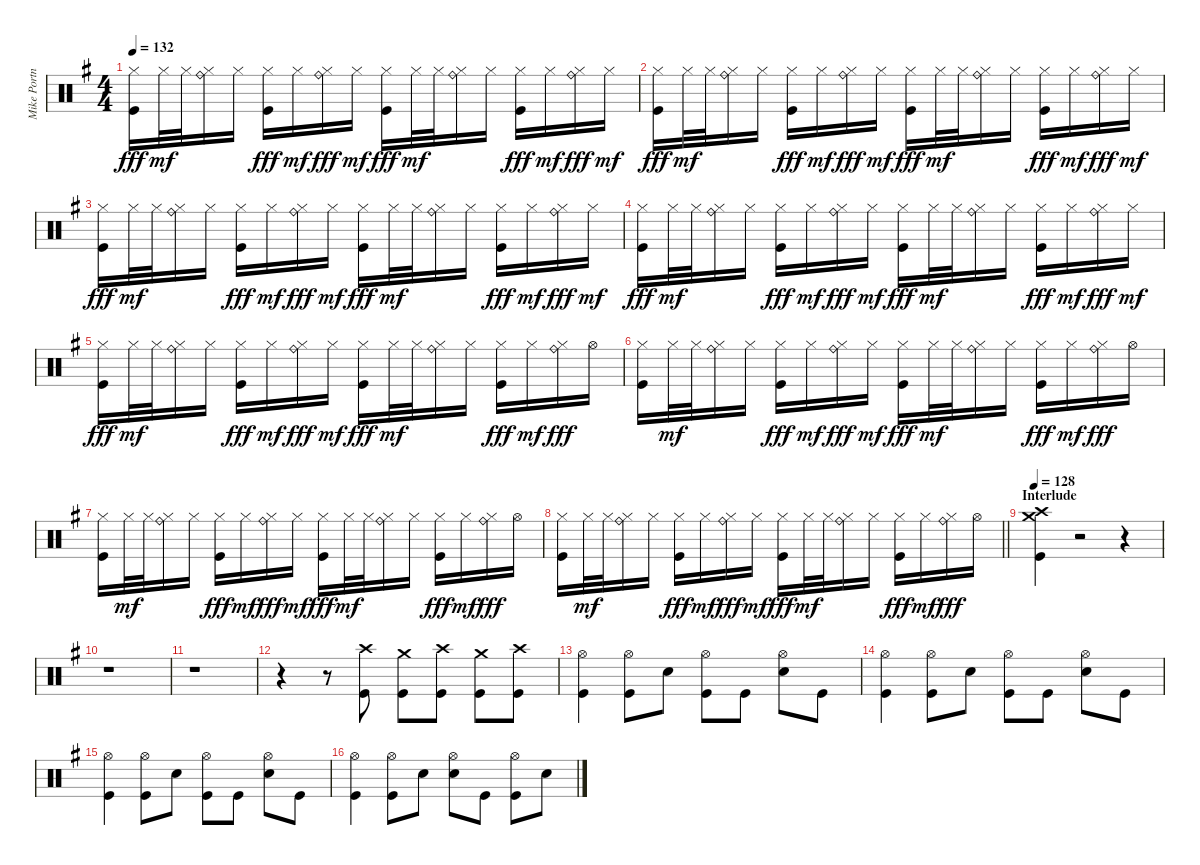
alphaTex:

\track ("Mike Portnoy" "Mike Portn") {instrument percussion}
\staff {score}
\articulation defaults
\ts (4 4)
\tempo 132
\clef neutral
\ks eminor
("Hi-Hat (closed)" "Kick (hit)").16{dy fff} "Hi-Hat (closed)".32{dy mf} "Hi-Hat (closed)".32 ("Hi-Hat (closed)" "Ride (bell)").16 "Hi-Hat (closed)".16 ("Hi-Hat (closed)" "Kick (hit)").16{dy fff} "Hi-Hat (closed)".16{dy mf} ("Ride (bell)" "Hi-Hat (closed)").16{dy fff} "Hi-Hat (closed)".16{dy mf} ("Hi-Hat (closed)" "Kick (hit)").16{dy fff} "Hi-Hat (closed)".32{dy mf} "Hi-Hat (closed)".32 ("Hi-Hat (closed)" "Ride (bell)").16 "Hi-Hat (closed)".16 ("Hi-Hat (closed)" "Kick (hit)").16{dy fff} "Hi-Hat (closed)".16{dy mf} ("Ride (bell)" "Hi-Hat (closed)").16{dy fff} "Hi-Hat (closed)".16{dy mf} |
("Hi-Hat (closed)" "Kick (hit)").16{dy fff} "Hi-Hat (closed)".32{dy mf} "Hi-Hat (closed)".32 ("Hi-Hat (closed)" "Ride (bell)").16 "Hi-Hat (closed)".16 ("Hi-Hat (closed)" "Kick (hit)").16{dy fff} "Hi-Hat (closed)".16{dy mf} ("Ride (bell)" "Hi-Hat (closed)").16{dy fff} "Hi-Hat (closed)".16{dy mf} ("Hi-Hat (closed)" "Kick (hit)").16{dy fff} "Hi-Hat (closed)".32{dy mf} "Hi-Hat (closed)".32 ("Hi-Hat (closed)" "Ride (bell)").16 "Hi-Hat (closed)".16 ("Hi-Hat (closed)" "Kick (hit)").16{dy fff} "Hi-Hat (closed)".16{dy mf} ("Ride (bell)" "Hi-Hat (closed)").16{dy fff} "Hi-Hat (closed)".16{dy mf} |
("Hi-Hat (closed)" "Kick (hit)").16{dy fff} "Hi-Hat (closed)".32{dy mf} "Hi-Hat (closed)".32 ("Hi-Hat (closed)" "Ride (bell)").16 "Hi-Hat (closed)".16 ("Hi-Hat (closed)" "Kick (hit)").16{dy fff} "Hi-Hat (closed)".16{dy mf} ("Ride (bell)" "Hi-Hat (closed)").16{dy fff} "Hi-Hat (closed)".16{dy mf} ("Hi-Hat (closed)" "Kick (hit)").16{dy fff} "Hi-Hat (closed)".32{dy mf} "Hi-Hat (closed)".32 ("Hi-Hat (closed)" "Ride (bell)").16 "Hi-Hat (closed)".16 ("Hi-Hat (closed)" "Kick (hit)").16{dy fff} "Hi-Hat (closed)".16{dy mf} ("Ride (bell)" "Hi-Hat (closed)").16{dy fff} "Hi-Hat (closed)".16{dy mf} |
("Hi-Hat (closed)" "Kick (hit)").16{dy fff} "Hi-Hat (closed)".32{dy mf} "Hi-Hat (closed)".32 ("Hi-Hat (closed)" "Ride (bell)").16 "Hi-Hat (closed)".16 ("Hi-Hat (closed)" "Kick (hit)").16{dy fff} "Hi-Hat (closed)".16{dy mf} ("Ride (bell)" "Hi-Hat (closed)").16{dy fff} "Hi-Hat (closed)".16{dy mf} ("Hi-Hat (closed)" "Kick (hit)").16{dy fff} "Hi-Hat (closed)".32{dy mf} "Hi-Hat (closed)".32 ("Hi-Hat (closed)" "Ride (bell)").16 "Hi-Hat (closed)".16 ("Hi-Hat (closed)" "Kick (hit)").16{dy fff} "Hi-Hat (closed)".16{dy mf} ("Ride (bell)" "Hi-Hat (closed)").16{dy fff} "Hi-Hat (closed)".16{dy mf} |
("Hi-Hat (closed)" "Kick (hit)").16{dy fff} "Hi-Hat (closed)".32{dy mf} "Hi-Hat (closed)".32 ("Hi-Hat (closed)" "Ride (bell)").16 "Hi-Hat (closed)".16 ("Hi-Hat (closed)" "Kick (hit)").16{dy fff} "Hi-Hat (closed)".16{dy mf} ("Ride (bell)" "Hi-Hat (closed)").16{dy fff} "Hi-Hat (closed)".16{dy mf} ("Hi-Hat (closed)" "Kick (hit)").16{dy fff} "Hi-Hat (closed)".32{dy mf} "Hi-Hat (closed)".32 ("Hi-Hat (closed)" "Ride (bell)").16 "Hi-Hat (closed)".16 ("Hi-Hat (closed)" "Kick (hit)").16{dy fff} "Hi-Hat (closed)".16{dy mf} ("Ride (bell)" "Hi-Hat (closed)").16{dy fff} "Hi-Hat (open)".16 |
("Hi-Hat (closed)" "Kick (hit)").16 "Hi-Hat (closed)".32{dy mf} "Hi-Hat (closed)".32 ("Hi-Hat (closed)" "Ride (bell)").16 "Hi-Hat (closed)".16 ("Hi-Hat (closed)" "Kick (hit)").16{dy fff} "Hi-Hat (closed)".16{dy mf} ("Ride (bell)" "Hi-Hat (closed)").16{dy fff} "Hi-Hat (closed)".16{dy mf} ("Hi-Hat (closed)" "Kick (hit)").16{dy fff} "Hi-Hat (closed)".32{dy mf} "Hi-Hat (closed)".32 ("Hi-Hat (closed)" "Ride (bell)").16 "Hi-Hat (closed)".16 ("Hi-Hat (closed)" "Kick (hit)").16{dy fff} "Hi-Hat (closed)".16{dy mf} ("Ride (bell)" "Hi-Hat (closed)").16{dy fff} "Hi-Hat (open)".16 |
("Hi-Hat (closed)" "Kick (hit)").16 "Hi-Hat (closed)".32{dy mf} "Hi-Hat (closed)".32 ("Hi-Hat (closed)" "Ride (bell)").16 "Hi-Hat (closed)".16 ("Hi-Hat (closed)" "Kick (hit)").16{dy fff} "Hi-Hat (closed)".16{dy mf} ("Ride (bell)" "Hi-Hat (closed)").16{dy fff} "Hi-Hat (closed)".16{dy mf} ("Hi-Hat (closed)" "Kick (hit)").16{dy fff} "Hi-Hat (closed)".32{dy mf} "Hi-Hat (closed)".32 ("Hi-Hat (closed)" "Ride (bell)").16 "Hi-Hat (closed)".16 ("Hi-Hat (closed)" "Kick (hit)").16{dy fff} "Hi-Hat (closed)".16{dy mf} ("Ride (bell)" "Hi-Hat (closed)").16{dy fff} "Hi-Hat (open)".16 |
\barLineRight lightlight
("Hi-Hat (closed)" "Kick (hit)").16 "Hi-Hat (closed)".32{dy mf} "Hi-Hat (closed)".32 ("Hi-Hat (closed)" "Ride (bell)").16 "Hi-Hat (closed)".16 ("Hi-Hat (closed)" "Kick (hit)").16{dy fff} "Hi-Hat (closed)".16{dy mf} ("Ride (bell)" "Hi-Hat (closed)").16{dy fff} "Hi-Hat (closed)".16{dy mf} ("Hi-Hat (closed)" "Kick (hit)").16{dy fff} "Hi-Hat (closed)".32{dy mf} "Hi-Hat (closed)".32 ("Hi-Hat (closed)" "Ride (bell)").16 "Hi-Hat (closed)".16 ("Hi-Hat (closed)" "Kick (hit)").16{dy fff} "Hi-Hat (closed)".16{dy mf} ("Ride (bell)" "Hi-Hat (closed)").16{dy fff} "Hi-Hat (open)".16 |
\section ("" "Interlude")
\tempo 128
("Kick (hit)" "Crash high (hit)" "Crash medium (hit)").4 r.2 r.4 |
r.1 |
r.1 |
r.4 r.8 ("Kick (hit)" "Crash high (hit)").8 ("Kick (hit)" "Crash medium (hit)").8 ("Kick (hit)" "Crash high (hit)").8 ("Kick (hit)" "Crash medium (hit)").8 ("Kick (hit)" "Crash high (hit)").8 |
("Kick (hit)" "Hi-Hat (open)").4 ("Kick (hit)" "Hi-Hat (open)").8 "Snare (hit) 2".8 ("Kick (hit)" "Hi-Hat (open)").8 "Kick (hit)".8 ("Snare (hit) 2" "Hi-Hat (open)").8 "Kick (hit)".8 |
("Kick (hit)" "Hi-Hat (open)").4 ("Kick (hit)" "Hi-Hat (open)").8 "Snare (hit) 2".8 ("Kick (hit)" "Hi-Hat (open)").8 "Kick (hit)".8 ("Snare (hit) 2" "Hi-Hat (open)").8 "Kick (hit)".8 |
("Kick (hit)" "Hi-Hat (open)").4 ("Kick (hit)" "Hi-Hat (open)").8 "Snare (hit) 2".8 ("Kick (hit)" "Hi-Hat (open)").8 "Kick (hit)".8 ("Snare (hit) 2" "Hi-Hat (open)").8 "Kick (hit)".8 |
("Kick (hit)" "Hi-Hat (open)").4 ("Kick (hit)" "Hi-Hat (open)").8 "Snare (hit) 2".8 ("Snare (hit) 2" "Hi-Hat (open)").8 "Kick (hit)".8 ("Kick (hit)" "Hi-Hat (open)").8 "Snare (hit) 2".8
